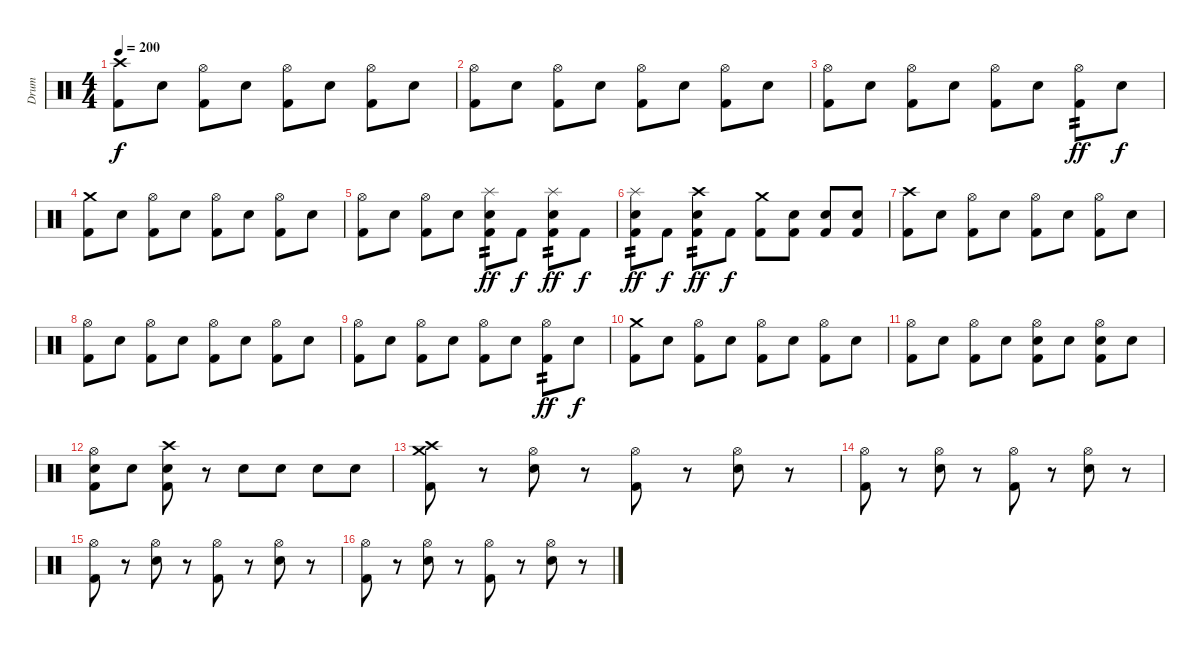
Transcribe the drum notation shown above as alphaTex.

\track ("Drum" "Drum") {instrument percussion}
\staff {score}
\articulation defaults
\ts (4 4)
\tempo 200
\clef neutral
\ks c
("Crash high (hit)" "Kick (hit) 2").8{dy f} "Snare (hit) 2".8 ("Hi-Hat (open)" "Kick (hit) 2").8 "Snare (hit) 2".8 ("Hi-Hat (open)" "Kick (hit) 2").8 "Snare (hit) 2".8 ("Hi-Hat (open)" "Kick (hit) 2").8 "Snare (hit) 2".8 |
("Hi-Hat (open)" "Kick (hit) 2").8 "Snare (hit) 2".8 ("Hi-Hat (open)" "Kick (hit) 2").8 "Snare (hit) 2".8 ("Hi-Hat (open)" "Kick (hit) 2").8 "Snare (hit) 2".8 ("Hi-Hat (open)" "Kick (hit) 2").8 "Snare (hit) 2".8 |
("Hi-Hat (open)" "Kick (hit) 2").8 "Snare (hit) 2".8 ("Hi-Hat (open)" "Kick (hit) 2").8 "Snare (hit) 2".8 ("Hi-Hat (open)" "Kick (hit) 2").8 "Snare (hit) 2".8 ("Hi-Hat (open)" "Kick (hit) 2").8{tp 2 dy ff} "Snare (hit) 2".8{dy f} |
("Crash medium (hit)" "Kick (hit) 2").8 "Snare (hit) 2".8 ("Hi-Hat (open)" "Kick (hit) 2").8 "Snare (hit) 2".8 ("Hi-Hat (open)" "Kick (hit) 2").8 "Snare (hit) 2".8 ("Hi-Hat (open)" "Kick (hit) 2").8 "Snare (hit) 2".8 |
("Hi-Hat (open)" "Kick (hit) 2").8 "Snare (hit) 2".8 ("Hi-Hat (open)" "Kick (hit) 2").8 "Snare (hit) 2".8 ("Splash (hit)" "Snare (hit) 2" "Kick (hit) 2").8{tp 2 dy ff} "Kick (hit) 2".8{dy f} ("Splash (hit)" "Snare (hit) 2" "Kick (hit) 2").8{tp 2 dy ff} "Kick (hit) 2".8{dy f} |
("Splash (hit)" "Snare (hit) 2" "Kick (hit) 2").8{tp 2 dy ff} "Kick (hit) 2".8{dy f} ("Crash high (hit)" "Snare (hit) 2" "Kick (hit) 2").8{tp 2 dy ff} "Kick (hit) 2".8{dy f} ("Crash medium (hit)" "Kick (hit) 2").8 ("Snare (hit) 2" "Kick (hit) 2").8 ("Snare (hit) 2" "Kick (hit) 2").8 ("Snare (hit) 2" "Kick (hit) 2").8 |
("Crash high (hit)" "Kick (hit) 2").8 "Snare (hit) 2".8 ("Hi-Hat (open)" "Kick (hit) 2").8 "Snare (hit) 2".8 ("Hi-Hat (open)" "Kick (hit) 2").8 "Snare (hit) 2".8 ("Hi-Hat (open)" "Kick (hit) 2").8 "Snare (hit) 2".8 |
("Hi-Hat (open)" "Kick (hit) 2").8 "Snare (hit) 2".8 ("Hi-Hat (open)" "Kick (hit) 2").8 "Snare (hit) 2".8 ("Hi-Hat (open)" "Kick (hit) 2").8 "Snare (hit) 2".8 ("Hi-Hat (open)" "Kick (hit) 2").8 "Snare (hit) 2".8 |
("Hi-Hat (open)" "Kick (hit) 2").8 "Snare (hit) 2".8 ("Hi-Hat (open)" "Kick (hit) 2").8 "Snare (hit) 2".8 ("Hi-Hat (open)" "Kick (hit) 2").8 "Snare (hit) 2".8 ("Hi-Hat (open)" "Kick (hit) 2").8{tp 2 dy ff} "Snare (hit) 2".8{dy f} |
("Crash medium (hit)" "Kick (hit) 2").8 "Snare (hit) 2".8 ("Hi-Hat (open)" "Kick (hit) 2").8 "Snare (hit) 2".8 ("Hi-Hat (open)" "Kick (hit) 2").8 "Snare (hit) 2".8 ("Hi-Hat (open)" "Kick (hit) 2").8 "Snare (hit) 2".8 |
("Hi-Hat (open)" "Kick (hit) 2").8 "Snare (hit) 2".8 ("Hi-Hat (open)" "Kick (hit) 2").8 "Snare (hit) 2".8 ("Hi-Hat (open)" "Snare (hit) 2" "Kick (hit) 2").8 "Snare (hit) 2".8 ("Hi-Hat (open)" "Snare (hit) 2" "Kick (hit) 2").8 "Snare (hit) 2".8 |
("Hi-Hat (open)" "Snare (hit) 2" "Kick (hit) 2").8 "Snare (hit) 2".8 ("Crash high (hit)" "Snare (hit) 2" "Kick (hit) 2").8 r.8 "Snare (hit) 2".8 "Snare (hit) 2".8 "Snare (hit) 2".8 "Snare (hit) 2".8 |
("Crash high (hit)" "Crash medium (hit)" "Kick (hit) 2").8 r.8 ("Hi-Hat (open)" "Snare (hit) 2").8 r.8 ("Hi-Hat (open)" "Kick (hit) 2").8 r.8 ("Hi-Hat (open)" "Snare (hit) 2").8 r.8 |
("Hi-Hat (open)" "Kick (hit) 2").8 r.8 ("Hi-Hat (open)" "Snare (hit) 2").8 r.8 ("Hi-Hat (open)" "Kick (hit) 2").8 r.8 ("Hi-Hat (open)" "Snare (hit) 2").8 r.8 |
("Hi-Hat (open)" "Kick (hit) 2").8 r.8 ("Hi-Hat (open)" "Snare (hit) 2").8 r.8 ("Hi-Hat (open)" "Kick (hit) 2").8 r.8 ("Hi-Hat (open)" "Snare (hit) 2").8 r.8 |
("Hi-Hat (open)" "Kick (hit) 2").8 r.8 ("Hi-Hat (open)" "Snare (hit) 2").8 r.8 ("Hi-Hat (open)" "Kick (hit) 2").8 r.8 ("Hi-Hat (open)" "Snare (hit) 2").8 r.8
